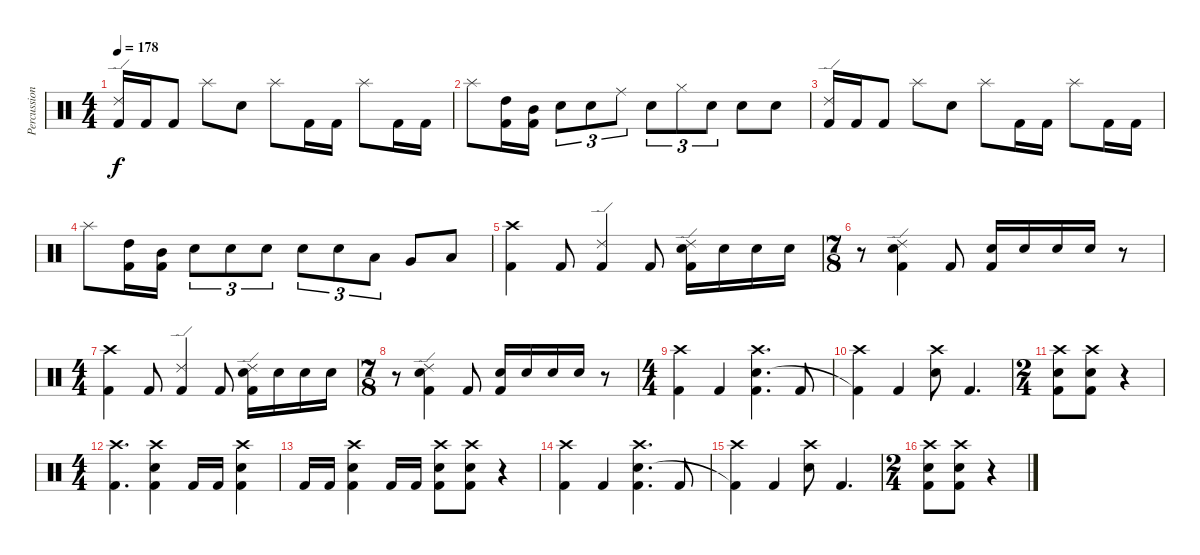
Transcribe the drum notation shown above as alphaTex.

\track ("Percussion" "Percussion") {instrument percussion}
\staff {score}
\articulation defaults
\ts (4 4)
\tempo 178
\clef neutral
\ks c
("Ride (edge) 2" "Kick (hit) 2").16{dy f} "Kick (hit) 2".16 "Kick (hit) 2".8 "Splash (hit)".8 "Electric Snare (hit)".8 "Splash (hit)".8 "Kick (hit) 2".16 "Kick (hit) 2".16 "Splash (hit)".8 "Kick (hit) 2".16 "Kick (hit) 2".16 |
"Splash (hit)".8 ("High Tom (hit)" "Kick (hit) 2").16 ("Mid Tom (hit)" "Kick (hit) 2").16 "Electric Snare (hit)".8{tu (3 2)} "Electric Snare (hit)".8{tu (3 2)} "Ride (middle)".8{tu (3 2)} "Electric Snare (hit)".8{tu (3 2)} "Hi-Hat (closed)".8{tu (3 2)} "Electric Snare (hit)".8{tu (3 2)} "Electric Snare (hit)".8 "Electric Snare (hit)".8 |
("Ride (edge) 2" "Kick (hit) 2").16 "Kick (hit) 2".16 "Kick (hit) 2".8 "Splash (hit)".8 "Electric Snare (hit)".8 "Splash (hit)".8 "Kick (hit) 2".16 "Kick (hit) 2".16 "Splash (hit)".8 "Kick (hit) 2".16 "Kick (hit) 2".16 |
"Splash (hit)".8 ("High Tom (hit)" "Kick (hit) 2").16 ("Mid Tom (hit)" "Kick (hit) 2").16 "Electric Snare (hit)".8{tu (3 2)} "Electric Snare (hit)".8{tu (3 2)} "Electric Snare (hit)".8{tu (3 2)} "Electric Snare (hit)".8{tu (3 2)} "Electric Snare (hit)".8{tu (3 2)} "Low Tom (hit)".8{tu (3 2)} "Very Low Tom (hit)".8 "Low Floor Tom (hit)".8 |
("Crash high (hit)" "Kick (hit) 2").4 "Kick (hit) 2".8 ("Ride (edge) 2" "Kick (hit) 2").4 "Kick (hit) 2".8 ("Ride (edge) 2" "Electric Snare (hit)" "Kick (hit) 2").16 "Electric Snare (hit)".16 "Electric Snare (hit)".16 "Electric Snare (hit)".16 |
\ts (7 8)
r.8 ("Ride (edge) 2" "Electric Snare (hit)" "Kick (hit) 2").4 "Kick (hit) 2".8 ("Electric Snare (hit)" "Kick (hit) 2").16 "Electric Snare (hit)".16 "Electric Snare (hit)".16 "Electric Snare (hit)".16 r.8 |
\ts (4 4)
("Crash high (hit)" "Kick (hit) 2").4 "Kick (hit) 2".8 ("Ride (edge) 2" "Kick (hit) 2").4 "Kick (hit) 2".8 ("Ride (edge) 2" "Electric Snare (hit)" "Kick (hit) 2").16 "Electric Snare (hit)".16 "Electric Snare (hit)".16 "Electric Snare (hit)".16 |
\ts (7 8)
r.8 ("Ride (edge) 2" "Electric Snare (hit)" "Kick (hit) 2").4 "Kick (hit) 2".8 ("Electric Snare (hit)" "Kick (hit) 2").16 "Electric Snare (hit)".16 "Electric Snare (hit)".16 "Electric Snare (hit)".16 r.8 |
\ts (4 4)
("Crash high (hit)" "Kick (hit) 2").4 "Kick (hit) 2".4 ("Crash high (hit)" "Electric Snare (hit)" "Kick (hit) 2").4{d} "Kick (hit) 2".8 |
("Crash high (hit)" "Kick (hit) 2"{t}).4 "Kick (hit) 2".4 ("Crash high (hit)" "Electric Snare (hit)").8 "Kick (hit) 2".4{d} |
\ts (2 4)
("Crash high (hit)" "Electric Snare (hit)" "Kick (hit) 2").8 ("Crash high (hit)" "Electric Snare (hit)" "Kick (hit) 2").8 r.4 |
\ts (4 4)
("Crash high (hit)" "Kick (hit) 2").4{d} ("Crash high (hit)" "Electric Snare (hit)" "Kick (hit) 2").4 "Kick (hit) 2".16 "Kick (hit) 2".16 ("Crash high (hit)" "Electric Snare (hit)" "Kick (hit) 2").4 |
"Kick (hit) 2".16 "Kick (hit) 2".16 ("Crash high (hit)" "Electric Snare (hit)" "Kick (hit) 2").4 "Kick (hit) 2".16 "Kick (hit) 2".16 ("Crash high (hit)" "Electric Snare (hit)" "Kick (hit) 2").8 ("Crash high (hit)" "Electric Snare (hit)" "Kick (hit) 2").8 r.4 |
("Crash high (hit)" "Kick (hit) 2").4 "Kick (hit) 2".4 ("Crash high (hit)" "Electric Snare (hit)" "Kick (hit) 2").4{d} "Kick (hit) 2".8 |
("Crash high (hit)" "Kick (hit) 2"{t}).4 "Kick (hit) 2".4 ("Crash high (hit)" "Electric Snare (hit)").8 "Kick (hit) 2".4{d} |
\ts (2 4)
("Crash high (hit)" "Electric Snare (hit)" "Kick (hit) 2").8 ("Crash high (hit)" "Electric Snare (hit)" "Kick (hit) 2").8 r.4
